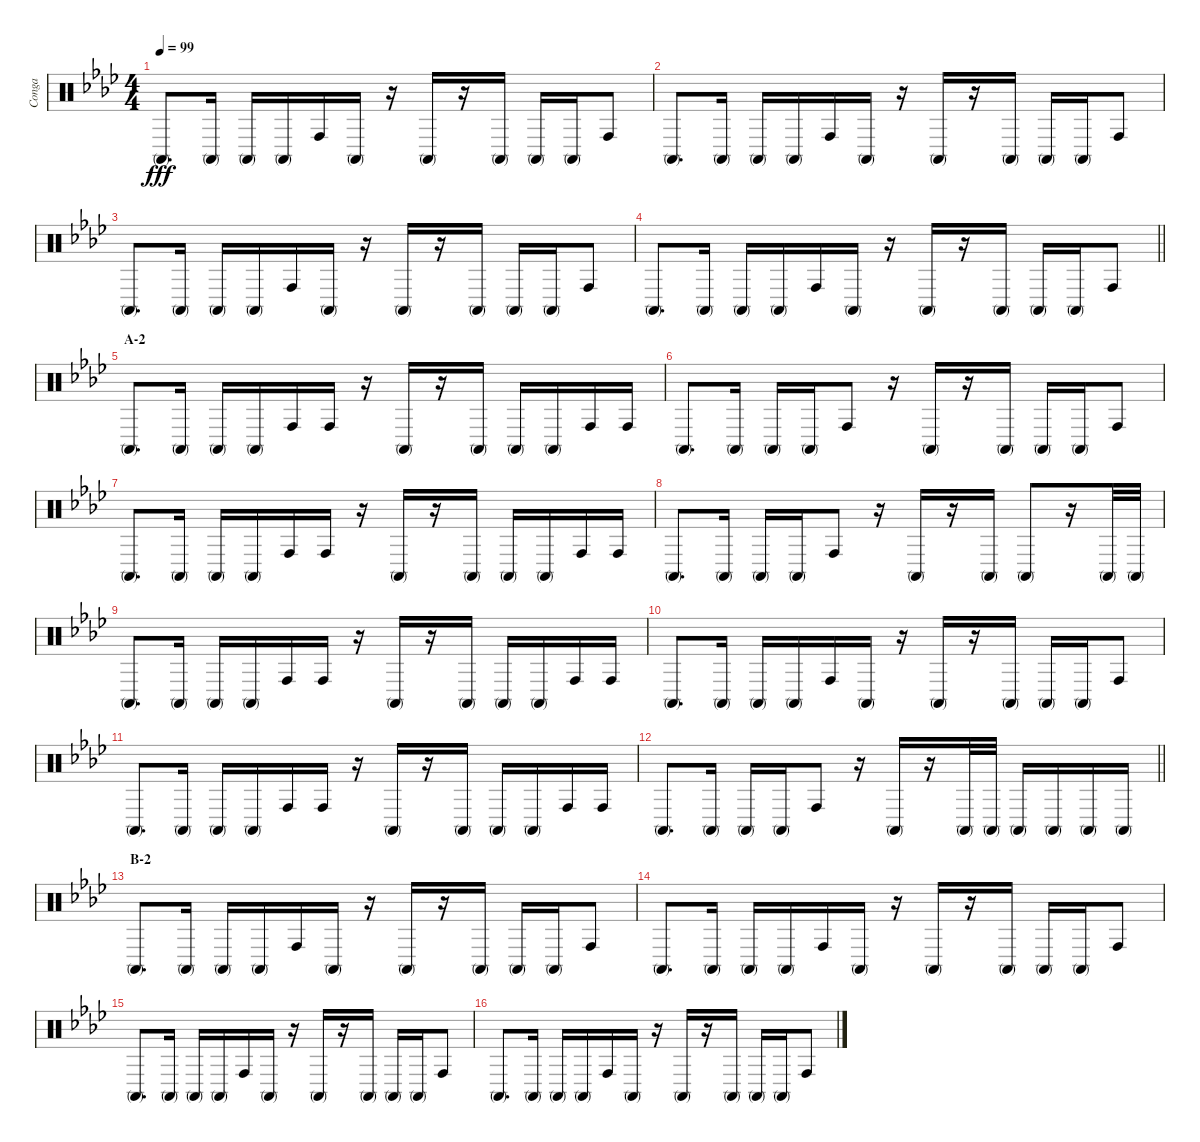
\track ("Conga" "Conga") {instrument percussion}
\staff {score}
\articulation defaults
\ts (4 4)
\tempo 99
\clef neutral
\ks ab "Conga high (mute)".8{d dy fff} "Conga high (mute)".16 "Conga high (mute)".16 "Conga high (mute)".16 "Conga high (hit)".16 "Conga high (mute)".16
r.16 "Conga high (mute)".16 r.16 "Conga high (mute)".16 "Conga high (mute)".16 "Conga high (mute)".16 "Conga high (hit)".8 |
"Conga high (mute)".8{d} "Conga high (mute)".16 "Conga high (mute)".16 "Conga high (mute)".16 "Conga high (hit)".16 "Conga high (mute)".16 r.16 "Conga high (mute)".16 r.16 "Conga high (mute)".16 "Conga high (mute)".16 "Conga high (mute)".16 "Conga high (hit)".8 |
"Conga high (mute)".8{d} "Conga high (mute)".16 "Conga high (mute)".16 "Conga high (mute)".16 "Conga high (hit)".16 "Conga high (mute)".16 r.16 "Conga high (mute)".16 r.16 "Conga high (mute)".16 "Conga high (mute)".16 "Conga high (mute)".16 "Conga high (hit)".8 |
\barLineRight lightlight "Conga high (mute)".8{d} "Conga high (mute)".16 "Conga high (mute)".16 "Conga high (mute)".16 "Conga high (hit)".16 "Conga high (mute)".16
r.16 "Conga high (mute)".16 r.16 "Conga high (mute)".16 "Conga high (mute)".16 "Conga high (mute)".16 "Conga high (hit)".8 |
\section ("" "A-2")
"Conga high (mute)".8{d} "Conga high (mute)".16 "Conga high (mute)".16 "Conga high (mute)".16 "Conga high (hit)".16 "Conga high (hit)".16 r.16 "Conga high (mute)".16 r.16 "Conga high (mute)".16 "Conga high (mute)".16 "Conga high (mute)".16 "Conga high (hit)".16 "Conga high (hit)".16 |
"Conga high (mute)".8{d} "Conga high (mute)".16 "Conga high (mute)".16 "Conga high (mute)".16 "Conga high (hit)".8 r.16 "Conga high (mute)".16 r.16 "Conga high (mute)".16 "Conga high (mute)".16 "Conga high (mute)".16 "Conga high (hit)".8 |
"Conga high (mute)".8{d} "Conga high (mute)".16 "Conga high (mute)".16 "Conga high (mute)".16 "Conga high (hit)".16 "Conga high (hit)".16 r.16 "Conga high (mute)".16 r.16 "Conga high (mute)".16 "Conga high (mute)".16 "Conga high (mute)".16 "Conga high (hit)".16 "Conga high (hit)".16 |
"Conga high (mute)".8{d} "Conga high (mute)".16 "Conga high (mute)".16 "Conga high (mute)".16 "Conga high (hit)".8 r.16 "Conga high (mute)".16 r.16 "Conga high (mute)".16 "Conga high (mute)".8 r.16 "Conga high (mute)".32 "Conga high (mute)".32 |
"Conga high (mute)".8{d} "Conga high (mute)".16 "Conga high (mute)".16 "Conga high (mute)".16 "Conga high (hit)".16 "Conga high (hit)".16 r.16 "Conga high (mute)".16 r.16 "Conga high (mute)".16 "Conga high (mute)".16 "Conga high (mute)".16 "Conga high (hit)".16 "Conga high (hit)".16 |
"Conga high (mute)".8{d} "Conga high (mute)".16 "Conga high (mute)".16 "Conga high (mute)".16 "Conga high (hit)".16 "Conga high (mute)".16 r.16 "Conga high (mute)".16 r.16 "Conga high (mute)".16 "Conga high (mute)".16 "Conga high (mute)".16 "Conga high (hit)".8 |
"Conga high (mute)".8{d} "Conga high (mute)".16 "Conga high (mute)".16 "Conga high (mute)".16 "Conga high (hit)".16 "Conga high (hit)".16 r.16 "Conga high (mute)".16 r.16 "Conga high (mute)".16 "Conga high (mute)".16 "Conga high (mute)".16 "Conga high (hit)".16 "Conga high (hit)".16 |
\barLineRight lightlight "Conga high (mute)".8{d} "Conga high (mute)".16 "Conga high (mute)".16 "Conga high (mute)".16 "Conga high (hit)".8
r.16 "Conga high (mute)".16 r.16 "Conga high (mute)".32 "Conga high (mute)".32 "Conga high (mute)".16 "Conga high (mute)".16 "Conga high (mute)".16 "Conga high (mute)".16 |
\section ("" "B-2")
"Conga high (mute)".8{d} "Conga high (mute)".16 "Conga high (mute)".16 "Conga high (mute)".16 "Conga high (hit)".16 "Conga high (mute)".16 r.16 "Conga high (mute)".16 r.16 "Conga high (mute)".16 "Conga high (mute)".16 "Conga high (mute)".16 "Conga high (hit)".8 |
"Conga high (mute)".8{d} "Conga high (mute)".16 "Conga high (mute)".16 "Conga high (mute)".16 "Conga high (hit)".16 "Conga high (mute)".16 r.16 "Conga high (mute)".16 r.16 "Conga high (mute)".16 "Conga high (mute)".16 "Conga high (mute)".16 "Conga high (hit)".8 |
"Conga high (mute)".8{d} "Conga high (mute)".16 "Conga high (mute)".16 "Conga high (mute)".16 "Conga high (hit)".16 "Conga high (mute)".16 r.16 "Conga high (mute)".16 r.16 "Conga high (mute)".16 "Conga high (mute)".16 "Conga high (mute)".16 "Conga high (hit)".8 |
"Conga high (mute)".8{d} "Conga high (mute)".16 "Conga high (mute)".16 "Conga high (mute)".16 "Conga high (hit)".16 "Conga high (mute)".16 r.16 "Conga high (mute)".16 r.16 "Conga high (mute)".16 "Conga high (mute)".16 "Conga high (mute)".16 "Conga high (hit)".8
